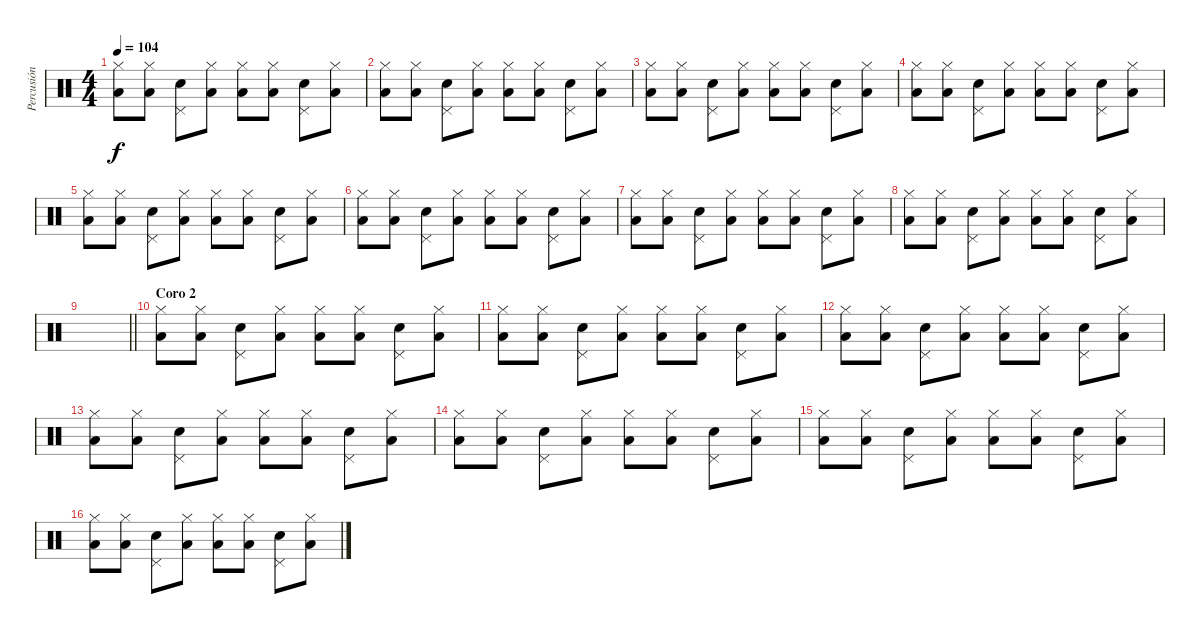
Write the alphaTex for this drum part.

\track ("Percusión" "Percusión") {instrument percussion}
\staff {score}
\articulation defaults
\ts (4 4)
\tempo 104
\clef neutral
\ks c
("Low Floor Tom (hit)" "Hi-Hat (closed)").8{dy f} ("Low Floor Tom (hit)" "Hi-Hat (closed)").8 ("Pedal Hi-Hat (hit)" "Snare (hit) 2").8 ("Low Floor Tom (hit)" "Hi-Hat (closed)").8 ("Low Floor Tom (hit)" "Hi-Hat (closed)").8 ("Low Floor Tom (hit)" "Hi-Hat (closed)").8 ("Pedal Hi-Hat (hit)" "Snare (hit) 2").8 ("Low Floor Tom (hit)" "Hi-Hat (closed)").8 |
("Low Floor Tom (hit)" "Hi-Hat (closed)").8 ("Low Floor Tom (hit)" "Hi-Hat (closed)").8 ("Pedal Hi-Hat (hit)" "Snare (hit) 2").8 ("Low Floor Tom (hit)" "Hi-Hat (closed)").8 ("Low Floor Tom (hit)" "Hi-Hat (closed)").8 ("Low Floor Tom (hit)" "Hi-Hat (closed)").8 ("Pedal Hi-Hat (hit)" "Snare (hit) 2").8 ("Low Floor Tom (hit)" "Hi-Hat (closed)").8 |
("Low Floor Tom (hit)" "Hi-Hat (closed)").8 ("Low Floor Tom (hit)" "Hi-Hat (closed)").8 ("Pedal Hi-Hat (hit)" "Snare (hit) 2").8 ("Low Floor Tom (hit)" "Hi-Hat (closed)").8 ("Low Floor Tom (hit)" "Hi-Hat (closed)").8 ("Low Floor Tom (hit)" "Hi-Hat (closed)").8 ("Pedal Hi-Hat (hit)" "Snare (hit) 2").8 ("Low Floor Tom (hit)" "Hi-Hat (closed)").8 |
("Low Floor Tom (hit)" "Hi-Hat (closed)").8 ("Low Floor Tom (hit)" "Hi-Hat (closed)").8 ("Pedal Hi-Hat (hit)" "Snare (hit) 2").8 ("Low Floor Tom (hit)" "Hi-Hat (closed)").8 ("Low Floor Tom (hit)" "Hi-Hat (closed)").8 ("Low Floor Tom (hit)" "Hi-Hat (closed)").8 ("Pedal Hi-Hat (hit)" "Snare (hit) 2").8 ("Low Floor Tom (hit)" "Hi-Hat (closed)").8 |
("Low Floor Tom (hit)" "Hi-Hat (closed)").8 ("Low Floor Tom (hit)" "Hi-Hat (closed)").8 ("Pedal Hi-Hat (hit)" "Snare (hit) 2").8 ("Low Floor Tom (hit)" "Hi-Hat (closed)").8 ("Low Floor Tom (hit)" "Hi-Hat (closed)").8 ("Low Floor Tom (hit)" "Hi-Hat (closed)").8 ("Pedal Hi-Hat (hit)" "Snare (hit) 2").8 ("Low Floor Tom (hit)" "Hi-Hat (closed)").8 |
("Low Floor Tom (hit)" "Hi-Hat (closed)").8 ("Low Floor Tom (hit)" "Hi-Hat (closed)").8 ("Pedal Hi-Hat (hit)" "Snare (hit) 2").8 ("Low Floor Tom (hit)" "Hi-Hat (closed)").8 ("Low Floor Tom (hit)" "Hi-Hat (closed)").8 ("Low Floor Tom (hit)" "Hi-Hat (closed)").8 ("Pedal Hi-Hat (hit)" "Snare (hit) 2").8 ("Low Floor Tom (hit)" "Hi-Hat (closed)").8 |
("Low Floor Tom (hit)" "Hi-Hat (closed)").8 ("Low Floor Tom (hit)" "Hi-Hat (closed)").8 ("Pedal Hi-Hat (hit)" "Snare (hit) 2").8 ("Low Floor Tom (hit)" "Hi-Hat (closed)").8 ("Low Floor Tom (hit)" "Hi-Hat (closed)").8 ("Low Floor Tom (hit)" "Hi-Hat (closed)").8 ("Pedal Hi-Hat (hit)" "Snare (hit) 2").8 ("Low Floor Tom (hit)" "Hi-Hat (closed)").8 |
("Low Floor Tom (hit)" "Hi-Hat (closed)").8 ("Low Floor Tom (hit)" "Hi-Hat (closed)").8 ("Pedal Hi-Hat (hit)" "Snare (hit) 2").8 ("Low Floor Tom (hit)" "Hi-Hat (closed)").8 ("Low Floor Tom (hit)" "Hi-Hat (closed)").8 ("Low Floor Tom (hit)" "Hi-Hat (closed)").8 ("Pedal Hi-Hat (hit)" "Snare (hit) 2").8 ("Low Floor Tom (hit)" "Hi-Hat (closed)").8 |
\barLineRight lightlight
|
\section ("" "Coro 2")
("Low Floor Tom (hit)" "Hi-Hat (closed)").8 ("Low Floor Tom (hit)" "Hi-Hat (closed)").8 ("Pedal Hi-Hat (hit)" "Snare (hit) 2").8 ("Low Floor Tom (hit)" "Hi-Hat (closed)").8 ("Low Floor Tom (hit)" "Hi-Hat (closed)").8 ("Low Floor Tom (hit)" "Hi-Hat (closed)").8 ("Pedal Hi-Hat (hit)" "Snare (hit) 2").8 ("Low Floor Tom (hit)" "Hi-Hat (closed)").8 |
("Low Floor Tom (hit)" "Hi-Hat (closed)").8 ("Low Floor Tom (hit)" "Hi-Hat (closed)").8 ("Pedal Hi-Hat (hit)" "Snare (hit) 2").8 ("Low Floor Tom (hit)" "Hi-Hat (closed)").8 ("Low Floor Tom (hit)" "Hi-Hat (closed)").8 ("Low Floor Tom (hit)" "Hi-Hat (closed)").8 ("Pedal Hi-Hat (hit)" "Snare (hit) 2").8 ("Low Floor Tom (hit)" "Hi-Hat (closed)").8 |
("Low Floor Tom (hit)" "Hi-Hat (closed)").8 ("Low Floor Tom (hit)" "Hi-Hat (closed)").8 ("Pedal Hi-Hat (hit)" "Snare (hit) 2").8 ("Low Floor Tom (hit)" "Hi-Hat (closed)").8 ("Low Floor Tom (hit)" "Hi-Hat (closed)").8 ("Low Floor Tom (hit)" "Hi-Hat (closed)").8 ("Pedal Hi-Hat (hit)" "Snare (hit) 2").8 ("Low Floor Tom (hit)" "Hi-Hat (closed)").8 |
("Low Floor Tom (hit)" "Hi-Hat (closed)").8 ("Low Floor Tom (hit)" "Hi-Hat (closed)").8 ("Pedal Hi-Hat (hit)" "Snare (hit) 2").8 ("Low Floor Tom (hit)" "Hi-Hat (closed)").8 ("Low Floor Tom (hit)" "Hi-Hat (closed)").8 ("Low Floor Tom (hit)" "Hi-Hat (closed)").8 ("Pedal Hi-Hat (hit)" "Snare (hit) 2").8 ("Low Floor Tom (hit)" "Hi-Hat (closed)").8 |
("Low Floor Tom (hit)" "Hi-Hat (closed)").8 ("Low Floor Tom (hit)" "Hi-Hat (closed)").8 ("Pedal Hi-Hat (hit)" "Snare (hit) 2").8 ("Low Floor Tom (hit)" "Hi-Hat (closed)").8 ("Low Floor Tom (hit)" "Hi-Hat (closed)").8 ("Low Floor Tom (hit)" "Hi-Hat (closed)").8 ("Pedal Hi-Hat (hit)" "Snare (hit) 2").8 ("Low Floor Tom (hit)" "Hi-Hat (closed)").8 |
("Low Floor Tom (hit)" "Hi-Hat (closed)").8 ("Low Floor Tom (hit)" "Hi-Hat (closed)").8 ("Pedal Hi-Hat (hit)" "Snare (hit) 2").8 ("Low Floor Tom (hit)" "Hi-Hat (closed)").8 ("Low Floor Tom (hit)" "Hi-Hat (closed)").8 ("Low Floor Tom (hit)" "Hi-Hat (closed)").8 ("Pedal Hi-Hat (hit)" "Snare (hit) 2").8 ("Low Floor Tom (hit)" "Hi-Hat (closed)").8 |
("Low Floor Tom (hit)" "Hi-Hat (closed)").8 ("Low Floor Tom (hit)" "Hi-Hat (closed)").8 ("Pedal Hi-Hat (hit)" "Snare (hit) 2").8 ("Low Floor Tom (hit)" "Hi-Hat (closed)").8 ("Low Floor Tom (hit)" "Hi-Hat (closed)").8 ("Low Floor Tom (hit)" "Hi-Hat (closed)").8 ("Pedal Hi-Hat (hit)" "Snare (hit) 2").8 ("Low Floor Tom (hit)" "Hi-Hat (closed)").8
